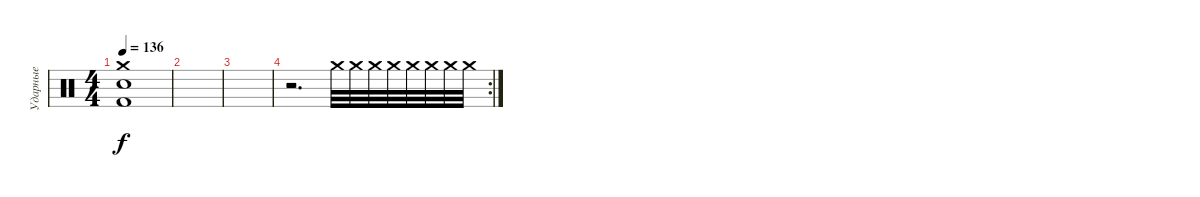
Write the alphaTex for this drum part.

\track ("Ударные" "Ударные") {instrument percussion}
\staff {score}
\articulation defaults
\ts (4 4)
\tempo 136
\clef neutral
\ks c
("Crash medium (hit)" "Electric Snare (hit)" "Kick (hit) 2").1{dy f} |
|
|
\rc 2
r.2{d volume 0} "Crash medium (hit)".32{volume 13} "Crash medium (hit)".32 "Crash medium (hit)".32 "Crash medium (hit)".32 "Crash medium (hit)".32 "Crash medium (hit)".32 "Crash medium (hit)".32 "Crash medium (hit)".32
